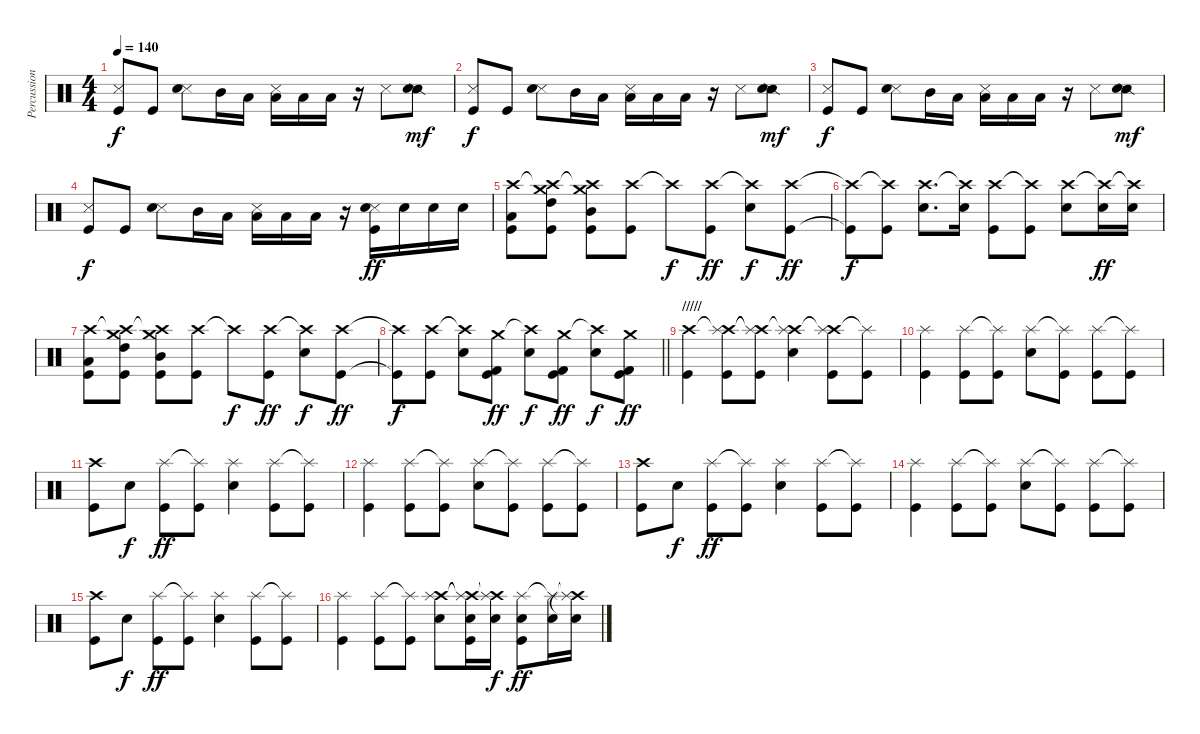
\track ("Percussion" "Percussion") {instrument percussion}
\staff {score}
\articulation defaults
\ts (4 4)
\tempo 140
\clef neutral
\ks c
("Snare (side stick) 3" "Kick (hit)"{t}).8{dy f} "Kick (hit)".8 ("Snare (side stick) 3" "Electric Snare (hit)").8 "Mid Tom (hit)".16 "Low Tom (hit)".16 ("Snare (side stick) 3" "Low Floor Tom (hit)").16 "Low Tom (hit)".16 "Low Floor Tom (hit)".16 r.16 "Snare (side stick) 3".8 ("Snare (side stick) 2" "Electric Snare (hit)").8{dy mf} |
("Snare (side stick) 3" "Kick (hit)").8{dy f} "Kick (hit)".8 ("Snare (side stick) 3" "Electric Snare (hit)").8 "Mid Tom (hit)".16 "Low Tom (hit)".16 ("Snare (side stick) 3" "Low Floor Tom (hit)").16 "Low Tom (hit)".16 "Low Floor Tom (hit)".16 r.16 "Snare (side stick) 3".8 ("Snare (side stick) 2" "Electric Snare (hit)").8{dy mf} |
("Snare (side stick) 3" "Kick (hit)").8{dy f} "Kick (hit)".8 ("Snare (side stick) 3" "Electric Snare (hit)").8 "Mid Tom (hit)".16 "Low Tom (hit)".16 ("Snare (side stick) 3" "Low Floor Tom (hit)").16 "Low Tom (hit)".16 "Low Floor Tom (hit)".16 r.16 "Snare (side stick) 3".8 ("Snare (side stick) 2" "Electric Snare (hit)").8{dy mf} |
("Snare (side stick) 3" "Kick (hit)").8{dy f} "Kick (hit)".8 ("Snare (side stick) 3" "Electric Snare (hit)").8 "Mid Tom (hit)".16 "Low Tom (hit)".16 ("Snare (side stick) 3" "Low Floor Tom (hit)").16 "Low Tom (hit)".16 "Low Floor Tom (hit)".16 r.16 ("Snare (side stick) 3" "Electric Snare (hit)" "Kick (hit)").16{dy ff} "Electric Snare (hit)".16 "Electric Snare (hit)".16 "Electric Snare (hit)".16 |
("Crash high (hit)" "Low Tom (hit)" "Kick (hit)").8 ("Crash high (hit)"{t} "Crash medium (hit)" "High Tom (hit)" "Kick (hit)").8 ("Crash high (hit)"{t} "Crash medium (hit)" "Mid Tom (hit)" "Kick (hit)").8 ("Crash high (hit)" "Kick (hit)").8 "Crash high (hit)"{t}.8{dy f} ("Crash high (hit)" "Kick (hit)").8{dy ff} ("Crash high (hit)"{t} "Electric Snare (hit)").8{dy f} ("Crash high (hit)" "Kick (hit)").8{dy ff} |
("Crash high (hit)"{t} "Kick (hit)"{t}).8{dy f} ("Crash high (hit)"{t} "Kick (hit)").8 ("Crash high (hit)" "Electric Snare (hit)").8{d} ("Crash high (hit)"{t} "Electric Snare (hit)").16 ("Crash high (hit)" "Kick (hit)").8 ("Crash high (hit)"{t} "Kick (hit)").8 ("Crash high (hit)" "Electric Snare (hit)").8 ("Crash high (hit)"{t} "Electric Snare (hit)").16{dy ff} ("Crash high (hit)"{t} "Electric Snare (hit)").16 |
("Crash high (hit)" "Low Tom (hit)" "Kick (hit)").8 ("Crash high (hit)"{t} "Crash medium (hit)" "High Tom (hit)" "Kick (hit)").8 ("Crash high (hit)"{t} "Crash medium (hit)" "Mid Tom (hit)" "Kick (hit)").8 ("Crash high (hit)" "Kick (hit)").8 "Crash high (hit)"{t}.8{dy f} ("Crash high (hit)" "Kick (hit)").8{dy ff} ("Crash high (hit)"{t} "Electric Snare (hit)").8{dy f} ("Crash high (hit)" "Kick (hit)").8{dy ff} |
\barLineRight lightlight
("Crash high (hit)"{t} "Kick (hit)"{t}).8{dy f} ("Crash high (hit)" "Kick (hit)").8 ("Crash high (hit)"{t} "Electric Snare (hit)").8 ("Crash medium (hit)" "Kick (hit) 2" "Kick (hit)").8{dy ff} ("Crash high (hit)"{t} "Electric Snare (hit)").8{dy f} ("Crash medium (hit)" "Kick (hit) 2" "Kick (hit)").8{dy ff} ("Crash high (hit)"{t} "Electric Snare (hit)").8{dy f} ("Crash medium (hit)" "Kick (hit) 2" "Kick (hit)").8{dy ff} |
\section ("" "/////")
("Crash high (hit)" "Kick (hit)").4 ("Crash high (hit)"{t} "Splash (hit)" "Kick (hit)").8 ("Crash high (hit)"{t} "Splash (hit)"{t} "Kick (hit)").8 ("Crash high (hit)"{t} "Splash (hit)" "Electric Snare (hit)").4 ("Crash high (hit)"{t} "Splash (hit)" "Kick (hit)").8 ("Splash (hit)"{t} "Kick (hit)").8 |
("Splash (hit)" "Kick (hit)").4 ("Splash (hit)" "Kick (hit)").8 ("Splash (hit)"{t} "Kick (hit)").8 ("Splash (hit)" "Electric Snare (hit)").8 ("Splash (hit)"{t} "Kick (hit)").8 ("Splash (hit)" "Kick (hit)").8 ("Splash (hit)"{t} "Kick (hit)").8 |
("Crash high (hit)" "Kick (hit)").8 "Electric Snare (hit)".8{dy f} ("Splash (hit)" "Kick (hit)").8{dy ff} ("Splash (hit)"{t} "Kick (hit)").8 ("Splash (hit)" "Electric Snare (hit)").4 ("Splash (hit)" "Kick (hit)").8 ("Splash (hit)"{t} "Kick (hit)").8 |
("Splash (hit)" "Kick (hit)").4 ("Splash (hit)" "Kick (hit)").8 ("Splash (hit)"{t} "Kick (hit)").8 ("Splash (hit)" "Electric Snare (hit)").8 ("Splash (hit)"{t} "Kick (hit)").8 ("Splash (hit)" "Kick (hit)").8 ("Splash (hit)"{t} "Kick (hit)").8 |
("Crash high (hit)" "Kick (hit)").8 "Electric Snare (hit)".8{dy f} ("Splash (hit)" "Kick (hit)").8{dy ff} ("Splash (hit)"{t} "Kick (hit)").8 ("Splash (hit)" "Electric Snare (hit)").4 ("Splash (hit)" "Kick (hit)").8 ("Splash (hit)"{t} "Kick (hit)").8 |
("Splash (hit)" "Kick (hit)").4 ("Splash (hit)" "Kick (hit)").8 ("Splash (hit)"{t} "Kick (hit)").8 ("Splash (hit)" "Electric Snare (hit)").8 ("Splash (hit)"{t} "Kick (hit)").8 ("Splash (hit)" "Kick (hit)").8 ("Splash (hit)"{t} "Kick (hit)").8 |
("Crash high (hit)" "Kick (hit)").8 "Electric Snare (hit)".8{dy f} ("Splash (hit)" "Kick (hit)").8{dy ff} ("Splash (hit)"{t} "Kick (hit)").8 ("Splash (hit)" "Electric Snare (hit)").4 ("Splash (hit)" "Kick (hit)").8 ("Splash (hit)"{t} "Kick (hit)").8 |
("Splash (hit)" "Kick (hit)").4 ("Splash (hit)" "Kick (hit)").8 ("Splash (hit)"{t} "Kick (hit)").8 ("Crash high (hit)" "Splash (hit)" "Electric Snare (hit)").8 ("Crash high (hit)"{t} "Splash (hit)"{t} "Electric Snare (hit)" "Kick (hit)").16 ("Crash high (hit)"{t} "Splash (hit)"{t} "Electric Snare (hit)").16{dy f} ("Splash (hit)" "Electric Snare (hit)" "Kick (hit)").8{dy ff} ("Splash (hit)"{t} "Electric Snare (hit)").16 ("Crash high (hit)"{t} "Splash (hit)"{t} "Electric Snare (hit)").16
